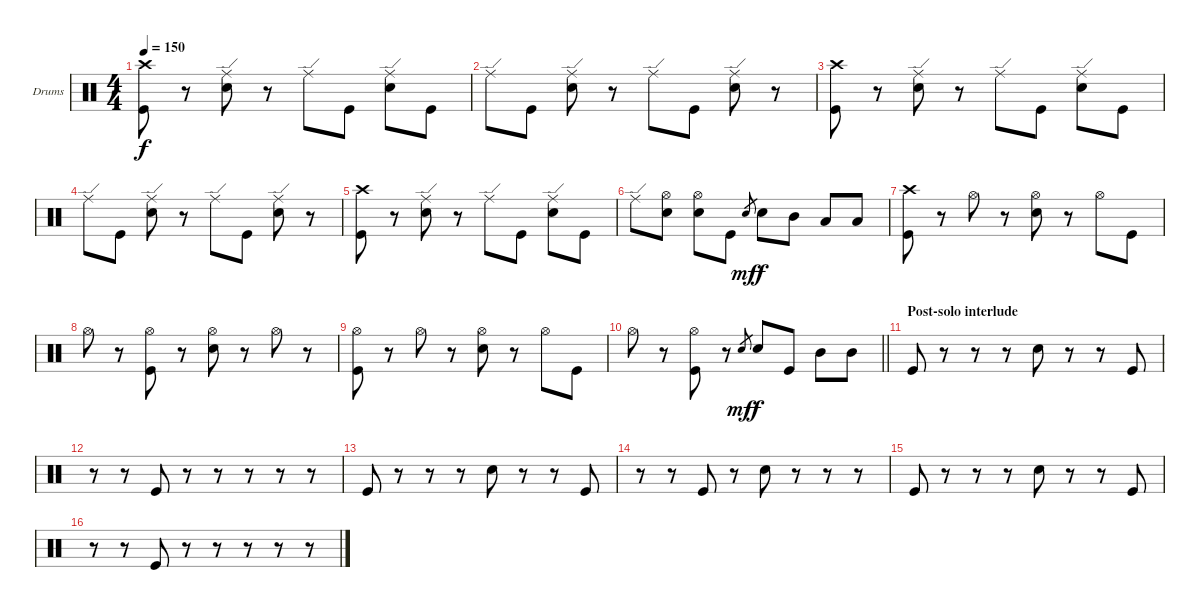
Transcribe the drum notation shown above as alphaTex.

\bracketExtendMode nobrackets
\firstSystemTrackNameOrientation horizontal
\otherSystemsTrackNameOrientation horizontal
\track ("Drumkit" "Drums") {instrument percussion}
\staff {score}
\articulation defaults
\ts (4 4)
\tempo 150
\clef neutral
\ks c
("Crash high (hit)" "Kick (hit)").8{dy f} r.8 ("Ride (edge)" "Snare (hit) 2").8 r.8 "Ride (edge)".8 "Kick (hit)".8 ("Ride (edge)" "Snare (hit) 2").8 "Kick (hit)".8 |
"Ride (edge)".8 "Kick (hit)".8 ("Ride (edge)" "Snare (hit) 2").8 r.8 "Ride (edge)".8 "Kick (hit)".8 ("Ride (edge)" "Snare (hit) 2").8 r.8 |
("Crash high (hit)" "Kick (hit)").8 r.8 ("Ride (edge)" "Snare (hit) 2").8 r.8 "Ride (edge)".8 "Kick (hit)".8 ("Ride (edge)" "Snare (hit) 2").8 "Kick (hit)".8 |
"Ride (edge)".8 "Kick (hit)".8 ("Ride (edge)" "Snare (hit) 2").8 r.8 "Ride (edge)".8 "Kick (hit)".8 ("Ride (edge)" "Snare (hit) 2").8 r.8 |
("Crash high (hit)" "Kick (hit)").8 r.8 ("Ride (edge)" "Snare (hit) 2").8 r.8 "Ride (edge)".8 "Kick (hit)".8 ("Ride (edge)" "Snare (hit) 2").8 "Kick (hit)".8 |
"Ride (edge)".8 ("Hi-Hat (open)" "Snare (hit) 2").8 ("Hi-Hat (open)" "Snare (hit) 2").8 "Kick (hit)".8 "Snare (hit) 2".8{gr dy mf} "Snare (hit) 2".8{dy f} "Mid Tom (hit)".8 "Low Tom (hit)".8 "Low Tom (hit)".8 |
("Crash high (hit)" "Kick (hit)").8 r.8 "Hi-Hat (open)".8 r.8 ("Hi-Hat (open)" "Snare (hit) 2").8 r.8 "Hi-Hat (open)".8 "Kick (hit)".8 |
"Hi-Hat (open)".8 r.8 ("Hi-Hat (open)" "Kick (hit)").8 r.8 ("Hi-Hat (open)" "Snare (hit) 2").8 r.8 "Hi-Hat (open)".8 r.8 |
("Hi-Hat (open)" "Kick (hit)").8 r.8 "Hi-Hat (open)".8 r.8 ("Hi-Hat (open)" "Snare (hit) 2").8 r.8 "Hi-Hat (open)".8 "Kick (hit)".8 |
\barLineRight lightlight "Hi-Hat (open)".8
r.8 ("Hi-Hat (open)" "Kick (hit)").8 r.8 "Snare (hit) 2".8{gr dy mf} "Snare (hit) 2".8{dy f} "Kick (hit)".8 "Mid Tom (hit)".8 "Mid Tom (hit)".8 |
\section ("" "Post-solo interlude")
"Kick (hit)".8 r.8 r.8 r.8 "Snare (hit) 2".8 r.8 r.8 "Kick (hit)".8 |
r.8 r.8 "Kick (hit)".8 r.8 r.8 r.8 r.8 r.8 |
"Kick (hit)".8 r.8 r.8 r.8 "Snare (hit) 2".8 r.8 r.8 "Kick (hit)".8 |
r.8 r.8 "Kick (hit)".8 r.8 "Snare (hit) 2".8 r.8 r.8 r.8 |
"Kick (hit)".8 r.8 r.8 r.8 "Snare (hit) 2".8 r.8 r.8 "Kick (hit)".8 |
r.8 r.8 "Kick (hit)".8 r.8 r.8 r.8 r.8 r.8
